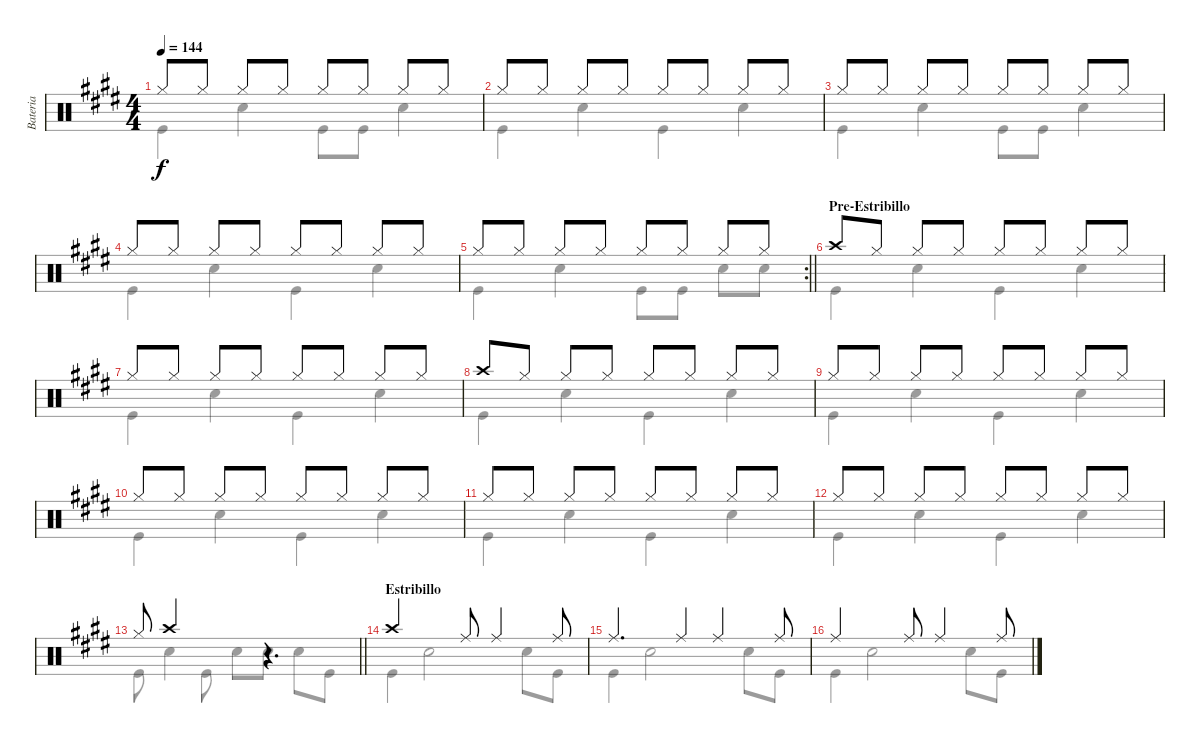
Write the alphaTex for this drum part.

\track ("Bateria" "Bateria") {instrument percussion}
\staff {score}
\articulation defaults
\voice
\ts (4 4)
\tempo 144
\clef neutral
\ks e "Hi-Hat (closed)".8{dy f} "Hi-Hat (closed)".8 "Hi-Hat (closed)".8 "Hi-Hat (closed)".8 "Hi-Hat (closed)".8 "Hi-Hat (closed)".8 "Hi-Hat (closed)".8 "Hi-Hat (closed)".8
|
"Hi-Hat (closed)".8 "Hi-Hat (closed)".8 "Hi-Hat (closed)".8 "Hi-Hat (closed)".8 "Hi-Hat (closed)".8 "Hi-Hat (closed)".8 "Hi-Hat (closed)".8 "Hi-Hat (closed)".8 |
"Hi-Hat (closed)".8 "Hi-Hat (closed)".8 "Hi-Hat (closed)".8 "Hi-Hat (closed)".8 "Hi-Hat (closed)".8 "Hi-Hat (closed)".8 "Hi-Hat (closed)".8 "Hi-Hat (closed)".8 |
"Hi-Hat (closed)".8 "Hi-Hat (closed)".8 "Hi-Hat (closed)".8 "Hi-Hat (closed)".8 "Hi-Hat (closed)".8 "Hi-Hat (closed)".8 "Hi-Hat (closed)".8 "Hi-Hat (closed)".8 |
\rc 2
\barLineRight lightlight "Hi-Hat (closed)".8 "Hi-Hat (closed)".8 "Hi-Hat (closed)".8 "Hi-Hat (closed)".8 "Hi-Hat (closed)".8 "Hi-Hat (closed)".8 "Hi-Hat (closed)".8 "Hi-Hat (closed)".8
|
\section ("" "Pre-Estribillo")
"Crash high (hit)".8 "Hi-Hat (closed)".8 "Hi-Hat (closed)".8 "Hi-Hat (closed)".8 "Hi-Hat (closed)".8 "Hi-Hat (closed)".8 "Hi-Hat (closed)".8 "Hi-Hat (closed)".8 |
"Hi-Hat (closed)".8 "Hi-Hat (closed)".8 "Hi-Hat (closed)".8 "Hi-Hat (closed)".8 "Hi-Hat (closed)".8 "Hi-Hat (closed)".8 "Hi-Hat (closed)".8 "Hi-Hat (closed)".8 |
"Crash high (hit)".8 "Hi-Hat (closed)".8 "Hi-Hat (closed)".8 "Hi-Hat (closed)".8 "Hi-Hat (closed)".8 "Hi-Hat (closed)".8 "Hi-Hat (closed)".8 "Hi-Hat (closed)".8 |
"Hi-Hat (closed)".8 "Hi-Hat (closed)".8 "Hi-Hat (closed)".8 "Hi-Hat (closed)".8 "Hi-Hat (closed)".8 "Hi-Hat (closed)".8 "Hi-Hat (closed)".8 "Hi-Hat (closed)".8 |
"Hi-Hat (closed)".8 "Hi-Hat (closed)".8 "Hi-Hat (closed)".8 "Hi-Hat (closed)".8 "Hi-Hat (closed)".8 "Hi-Hat (closed)".8 "Hi-Hat (closed)".8 "Hi-Hat (closed)".8 |
"Hi-Hat (closed)".8 "Hi-Hat (closed)".8 "Hi-Hat (closed)".8 "Hi-Hat (closed)".8 "Hi-Hat (closed)".8 "Hi-Hat (closed)".8 "Hi-Hat (closed)".8 "Hi-Hat (closed)".8 |
"Hi-Hat (closed)".8 "Hi-Hat (closed)".8 "Hi-Hat (closed)".8 "Hi-Hat (closed)".8 "Hi-Hat (closed)".8 "Hi-Hat (closed)".8 "Hi-Hat (closed)".8 "Hi-Hat (closed)".8 |
\barLineRight lightlight "Hi-Hat (closed)".8 "Crash high (hit)".2
r.4{d} |
\section ("" "Estribillo")
"Crash high (hit)".2 "Ride (middle)".8 "Ride (middle)".4 "Ride (middle)".8 |
"Ride (middle)".4{d} "Ride (middle)".4 "Ride (middle)".4 "Ride (middle)".8 |
"Ride (middle)".2 "Ride (middle)".8 "Ride (middle)".4 "Ride (middle)".8
\voice
\clef neutral
\ottava regular
\simile none
\ks e "Kick (hit)".4{dy f} "Snare (hit) 2".4 "Kick (hit)".8 "Kick (hit)".8 "Snare (hit) 2".4
|
"Kick (hit)".4 "Snare (hit) 2".4 "Kick (hit)".4 "Snare (hit) 2".4 |
"Kick (hit)".4 "Snare (hit) 2".4 "Kick (hit)".8 "Kick (hit)".8 "Snare (hit) 2".4 |
"Kick (hit)".4 "Snare (hit) 2".4 "Kick (hit)".4 "Snare (hit) 2".4 |
\barLineRight lightlight "Kick (hit)".4 "Snare (hit) 2".4 "Kick (hit)".8 "Kick (hit)".8 "Snare (hit) 2".8 "Snare (hit) 2".8
|
"Kick (hit)".4 "Snare (hit) 2".4 "Kick (hit)".4 "Snare (hit) 2".4 |
"Kick (hit)".4 "Snare (hit) 2".4 "Kick (hit)".4 "Snare (hit) 2".4 |
"Kick (hit)".4 "Snare (hit) 2".4 "Kick (hit)".4 "Snare (hit) 2".4 |
"Kick (hit)".4 "Snare (hit) 2".4 "Kick (hit)".4 "Snare (hit) 2".4 |
"Kick (hit)".4 "Snare (hit) 2".4 "Kick (hit)".4 "Snare (hit) 2".4 |
"Kick (hit)".4 "Snare (hit) 2".4 "Kick (hit)".4 "Snare (hit) 2".4 |
"Kick (hit)".4 "Snare (hit) 2".4 "Kick (hit)".4 "Snare (hit) 2".4 |
\barLineRight lightlight "Kick (hit)".8 "Snare (hit) 2".4 "Kick (hit)".8 "Snare (hit) 2".8 "Snare (hit) 2".8 "Snare (hit) 2".8 "Kick (hit)".8
|
"Kick (hit)".4 "Snare (hit) 2".2 "Snare (hit) 2".8 "Kick (hit)".8 |
"Kick (hit)".4 "Snare (hit) 2".2 "Snare (hit) 2".8 "Kick (hit)".8 |
"Kick (hit)".4 "Snare (hit) 2".2 "Snare (hit) 2".8 "Kick (hit)".8
